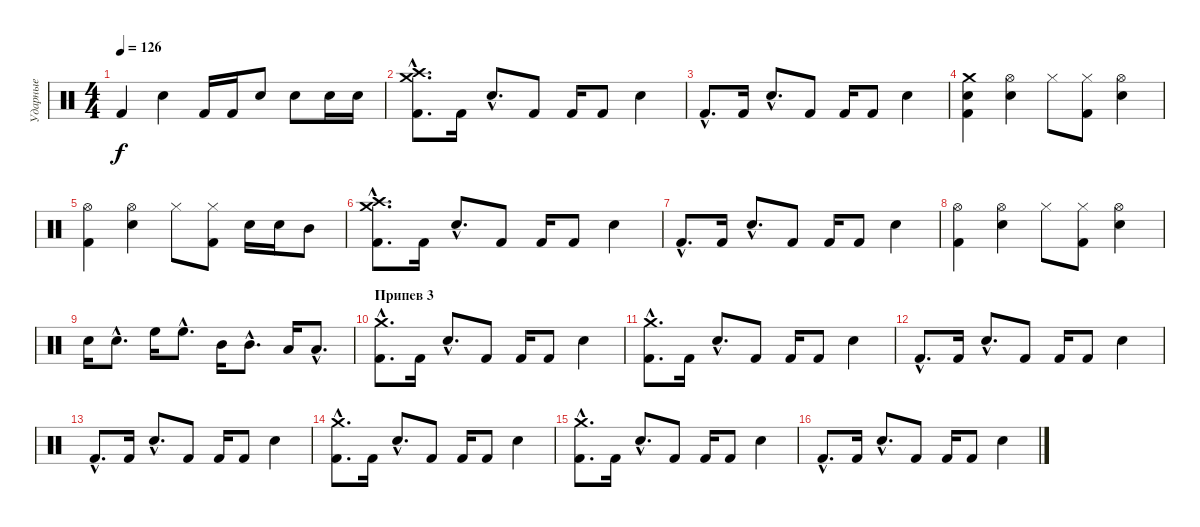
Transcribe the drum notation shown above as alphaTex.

\track ("Ударные" "Ударные") {instrument percussion}
\staff {score}
\articulation defaults
\ts (4 4)
\tempo 126
\clef neutral
\ks c "Kick (hit) 2".4{dy f} "Snare (hit) 2".4 "Kick (hit) 2".16 "Kick (hit) 2".16 "Snare (hit) 2".8 "Snare (hit) 2".8 "Snare (hit) 2".16 "Snare (hit) 2".16
|
("Kick (hit) 2"{hac} "Crash high (hit)"{hac} "Crash medium (hit)"{hac}).8{d} "Kick (hit) 2".16 "Snare (hit) 2"{hac}.8{d} "Kick (hit) 2".8 "Kick (hit) 2".16 "Kick (hit) 2".8 "Snare (hit) 2".4 |
"Kick (hit) 2"{hac}.8{d} "Kick (hit) 2".16 "Snare (hit) 2"{hac}.8{d} "Kick (hit) 2".8 "Kick (hit) 2".16 "Kick (hit) 2".8 "Snare (hit) 2".4 |
("Snare (hit) 2" "Kick (hit) 2" "Crash medium (hit)").4 ("Snare (hit) 2" "Hi-Hat (open)").4 "Hi-Hat (closed)".8 ("Kick (hit) 2" "Hi-Hat (closed)").8 ("Snare (hit) 2" "Hi-Hat (open)").4 |
("Kick (hit) 2" "Hi-Hat (open)").4 ("Snare (hit) 2" "Hi-Hat (open)").4 "Hi-Hat (closed)".8 ("Kick (hit) 2" "Hi-Hat (closed)").8 "Snare (hit) 2".16 "Snare (hit) 2".16 "Mid Tom (hit)".8 |
("Kick (hit) 2"{hac} "Crash high (hit)"{hac} "Crash medium (hit)"{hac}).8{d} "Kick (hit) 2".16 "Snare (hit) 2"{hac}.8{d} "Kick (hit) 2".8 "Kick (hit) 2".16 "Kick (hit) 2".8 "Snare (hit) 2".4 |
"Kick (hit) 2"{hac}.8{d} "Kick (hit) 2".16 "Snare (hit) 2"{hac}.8{d} "Kick (hit) 2".8 "Kick (hit) 2".16 "Kick (hit) 2".8 "Snare (hit) 2".4 |
("Kick (hit) 2" "Hi-Hat (open)").4 ("Snare (hit) 2" "Hi-Hat (open)").4 "Hi-Hat (closed)".8 ("Kick (hit) 2" "Hi-Hat (closed)").8 ("Snare (hit) 2" "Hi-Hat (open)").4 |
"Snare (hit) 2".16 "Snare (hit) 2"{hac}.8{d} "High Floor Tom (hit)".16 "High Floor Tom (hit)"{hac}.8{d} "Mid Tom (hit)".16 "Mid Tom (hit)"{hac}.8{d} "Low Floor Tom (hit)".16 "Low Floor Tom (hit)"{hac}.8{d} |
\section ("" "Припев 3")
("Kick (hit) 2"{hac} "Crash medium (hit)"{hac}).8{d} "Kick (hit) 2".16 "Snare (hit) 2"{hac}.8{d} "Kick (hit) 2".8 "Kick (hit) 2".16 "Kick (hit) 2".8 "Snare (hit) 2".4 |
("Kick (hit) 2"{hac} "Crash medium (hit)"{hac}).8{d} "Kick (hit) 2".16 "Snare (hit) 2"{hac}.8{d} "Kick (hit) 2".8 "Kick (hit) 2".16 "Kick (hit) 2".8 "Snare (hit) 2".4 |
"Kick (hit) 2"{hac}.8{d} "Kick (hit) 2".16 "Snare (hit) 2"{hac}.8{d} "Kick (hit) 2".8 "Kick (hit) 2".16 "Kick (hit) 2".8 "Snare (hit) 2".4 |
"Kick (hit) 2"{hac}.8{d} "Kick (hit) 2".16 "Snare (hit) 2"{hac}.8{d} "Kick (hit) 2".8 "Kick (hit) 2".16 "Kick (hit) 2".8 "Snare (hit) 2".4 |
("Kick (hit) 2"{hac} "Crash medium (hit)"{hac}).8{d} "Kick (hit) 2".16 "Snare (hit) 2"{hac}.8{d} "Kick (hit) 2".8 "Kick (hit) 2".16 "Kick (hit) 2".8 "Snare (hit) 2".4 |
("Kick (hit) 2"{hac} "Crash medium (hit)"{hac}).8{d} "Kick (hit) 2".16 "Snare (hit) 2"{hac}.8{d} "Kick (hit) 2".8 "Kick (hit) 2".16 "Kick (hit) 2".8 "Snare (hit) 2".4 |
"Kick (hit) 2"{hac}.8{d} "Kick (hit) 2".16 "Snare (hit) 2"{hac}.8{d} "Kick (hit) 2".8 "Kick (hit) 2".16 "Kick (hit) 2".8 "Snare (hit) 2".4
